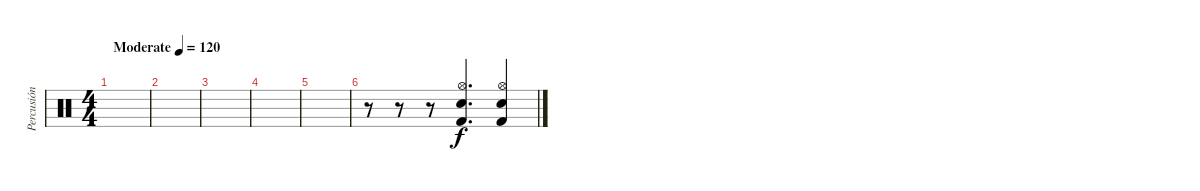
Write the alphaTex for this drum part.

\track ("Percusión" "Percusión") {instrument percussion}
\staff {score}
\articulation defaults
\ts (4 4)
\tempo (120 "Moderate")
\clef neutral
\ks c
|
|
|
|
|
r.8 r.8 r.8 ("Kick (hit) 2" "Hi-Hat (open)" "Snare (hit) 2").4{d} ("Kick (hit) 2" "Hi-Hat (open)" "Snare (hit) 2").4
